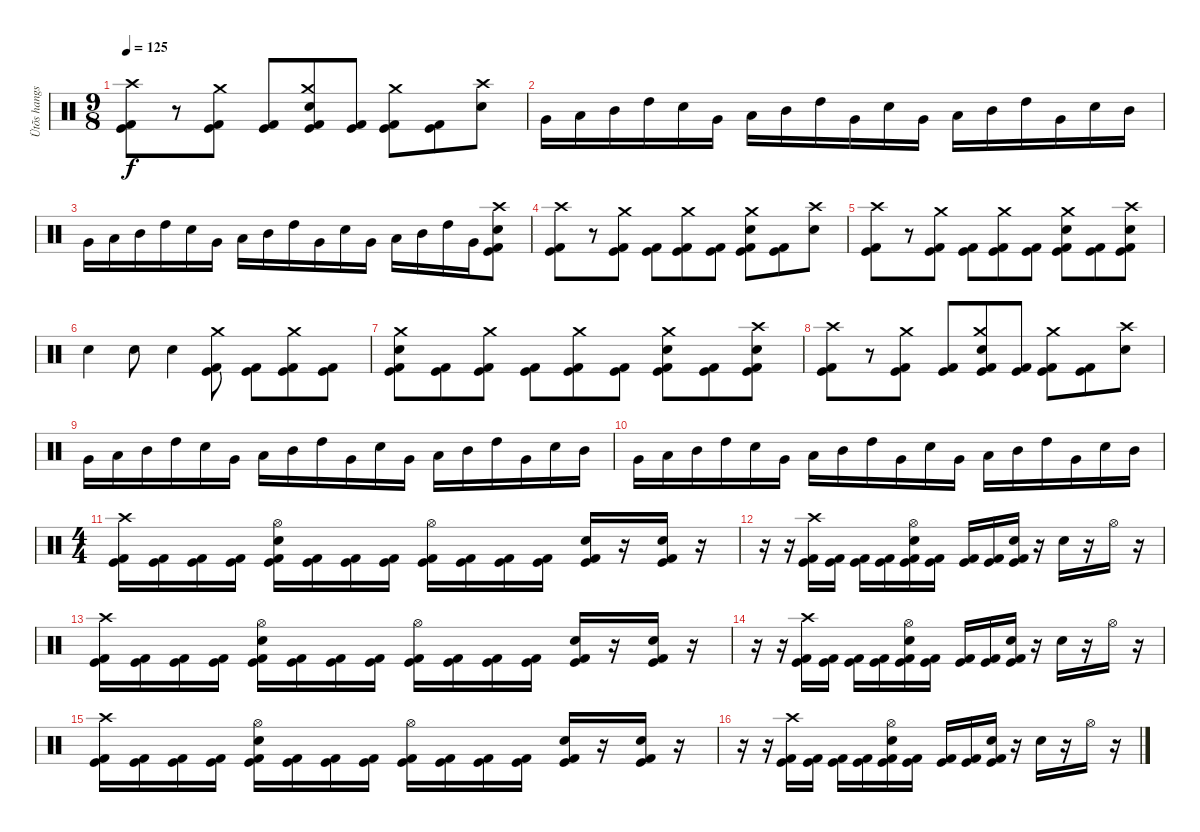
\track ("Ütõs hangszer" "Ütõs hangs") {instrument percussion}
\staff {score}
\articulation defaults
\ts (9 8)
\tempo 125
\clef neutral
\ks c
("Crash high (hit)" "Kick (hit)" "Kick (hit) 2").8{dy f} r.8 ("Crash medium (hit)" "Kick (hit)" "Kick (hit) 2").8 ("Kick (hit)" "Kick (hit) 2").8 ("Crash medium (hit)" "Snare (hit) 2" "Kick (hit)" "Kick (hit) 2").8 ("Kick (hit)" "Kick (hit) 2").8 ("Crash medium (hit)" "Kick (hit)" "Kick (hit) 2").8 ("Kick (hit)" "Kick (hit) 2").8 ("Crash high (hit)" "Snare (hit) 2").8 |
"Very Low Tom (hit)".16 "Low Tom (hit)".16 "Mid Tom (hit)".16 "High Tom (hit)".16 "Snare (hit) 2".16 "Very Low Tom (hit)".16 "Low Tom (hit)".16 "Mid Tom (hit)".16 "High Tom (hit)".16 "Very Low Tom (hit)".16 "Snare (hit) 2".16 "Very Low Tom (hit)".16 "Low Tom (hit)".16 "Mid Tom (hit)".16 "High Tom (hit)".16 "Very Low Tom (hit)".16 "Snare (hit) 2".16 "Mid Tom (hit)".16 |
"Very Low Tom (hit)".16 "Low Tom (hit)".16 "Mid Tom (hit)".16 "High Tom (hit)".16 "Snare (hit) 2".16 "Very Low Tom (hit)".16 "Low Tom (hit)".16 "Mid Tom (hit)".16 "High Tom (hit)".16 "Very Low Tom (hit)".16 "Snare (hit) 2".16 "Very Low Tom (hit)".16 "Low Tom (hit)".16 "Mid Tom (hit)".16 "High Tom (hit)".16 "Very Low Tom (hit)".16 ("Crash high (hit)" "Snare (hit) 2" "Kick (hit)" "Kick (hit) 2").8 |
("Crash high (hit)" "Kick (hit)" "Kick (hit) 2").8 r.8 ("Crash medium (hit)" "Kick (hit)" "Kick (hit) 2").8 ("Kick (hit)" "Kick (hit) 2").8 ("Crash medium (hit)" "Kick (hit)" "Kick (hit) 2").8 ("Kick (hit)" "Kick (hit) 2").8 ("Crash medium (hit)" "Snare (hit) 2" "Kick (hit)" "Kick (hit) 2").8 ("Kick (hit)" "Kick (hit) 2").8 ("Crash high (hit)" "Snare (hit) 2").8 |
("Crash high (hit)" "Kick (hit)" "Kick (hit) 2").8 r.8 ("Crash medium (hit)" "Kick (hit)" "Kick (hit) 2").8 ("Kick (hit)" "Kick (hit) 2").8 ("Crash medium (hit)" "Kick (hit)" "Kick (hit) 2").8 ("Kick (hit)" "Kick (hit) 2").8 ("Crash medium (hit)" "Snare (hit) 2" "Kick (hit)" "Kick (hit) 2").8 ("Kick (hit)" "Kick (hit) 2").8 ("Crash high (hit)" "Snare (hit) 2" "Kick (hit)" "Kick (hit) 2").8 |
"Snare (hit) 2".4 "Snare (hit) 2".8 "Snare (hit) 2".4 ("Crash medium (hit)" "Kick (hit)" "Kick (hit) 2").8 ("Kick (hit)" "Kick (hit) 2").8 ("Crash medium (hit)" "Kick (hit)" "Kick (hit) 2").8 ("Kick (hit)" "Kick (hit) 2").8 |
("Crash medium (hit)" "Snare (hit) 2" "Kick (hit)" "Kick (hit) 2").8 ("Kick (hit)" "Kick (hit) 2").8 ("Crash medium (hit)" "Kick (hit)" "Kick (hit) 2").8 ("Kick (hit)" "Kick (hit) 2").8 ("Crash medium (hit)" "Kick (hit)" "Kick (hit) 2").8 ("Kick (hit)" "Kick (hit) 2").8 ("Crash medium (hit)" "Snare (hit) 2" "Kick (hit)" "Kick (hit) 2").8 ("Kick (hit)" "Kick (hit) 2").8 ("Crash high (hit)" "Snare (hit) 2" "Kick (hit)" "Kick (hit) 2").8 |
("Crash high (hit)" "Kick (hit)" "Kick (hit) 2").8 r.8 ("Crash medium (hit)" "Kick (hit)" "Kick (hit) 2").8 ("Kick (hit)" "Kick (hit) 2").8 ("Crash medium (hit)" "Snare (hit) 2" "Kick (hit)" "Kick (hit) 2").8 ("Kick (hit)" "Kick (hit) 2").8 ("Crash medium (hit)" "Kick (hit)" "Kick (hit) 2").8 ("Kick (hit)" "Kick (hit) 2").8 ("Crash high (hit)" "Snare (hit) 2").8 |
"Very Low Tom (hit)".16 "Low Tom (hit)".16 "Mid Tom (hit)".16 "High Tom (hit)".16 "Snare (hit) 2".16 "Very Low Tom (hit)".16 "Low Tom (hit)".16 "Mid Tom (hit)".16 "High Tom (hit)".16 "Very Low Tom (hit)".16 "Snare (hit) 2".16 "Very Low Tom (hit)".16 "Low Tom (hit)".16 "Mid Tom (hit)".16 "High Tom (hit)".16 "Very Low Tom (hit)".16 "Snare (hit) 2".16 "Mid Tom (hit)".16 |
"Very Low Tom (hit)".16 "Low Tom (hit)".16 "Mid Tom (hit)".16 "High Tom (hit)".16 "Snare (hit) 2".16 "Very Low Tom (hit)".16 "Low Tom (hit)".16 "Mid Tom (hit)".16 "High Tom (hit)".16 "Very Low Tom (hit)".16 "Snare (hit) 2".16 "Very Low Tom (hit)".16 "Low Tom (hit)".16 "Mid Tom (hit)".16 "High Tom (hit)".16 "Very Low Tom (hit)".16 "Snare (hit) 2".16 "Mid Tom (hit)".16 |
\ts (4 4)
("Crash high (hit)" "Kick (hit)" "Kick (hit) 2").16 ("Kick (hit)" "Kick (hit) 2").16 ("Kick (hit)" "Kick (hit) 2").16 ("Kick (hit)" "Kick (hit) 2").16 ("Hi-Hat (open)" "Snare (hit) 2" "Kick (hit)" "Kick (hit) 2").16 ("Kick (hit)" "Kick (hit) 2").16 ("Kick (hit)" "Kick (hit) 2").16 ("Kick (hit)" "Kick (hit) 2").16 ("Hi-Hat (open)" "Kick (hit)" "Kick (hit) 2").16 ("Kick (hit)" "Kick (hit) 2").16 ("Kick (hit)" "Kick (hit) 2").16 ("Kick (hit)" "Kick (hit) 2").16 ("Snare (hit) 2" "Kick (hit)" "Kick (hit) 2").16 r.16 ("Snare (hit) 2" "Kick (hit)" "Kick (hit) 2").16 r.16 |
r.16 r.16 ("Crash high (hit)" "Kick (hit)" "Kick (hit) 2").16 ("Kick (hit)" "Kick (hit) 2").16 ("Kick (hit)" "Kick (hit) 2").16 ("Kick (hit)" "Kick (hit) 2").16 ("Hi-Hat (open)" "Snare (hit) 2" "Kick (hit)" "Kick (hit) 2").16 ("Kick (hit)" "Kick (hit) 2").16 ("Kick (hit)" "Kick (hit) 2").16 ("Kick (hit)" "Kick (hit) 2").16 ("Snare (hit) 2" "Kick (hit)" "Kick (hit) 2").16 r.16 "Snare (hit) 2".16 r.16 "Hi-Hat (open)".16 r.16 |
("Crash high (hit)" "Kick (hit)" "Kick (hit) 2").16 ("Kick (hit)" "Kick (hit) 2").16 ("Kick (hit)" "Kick (hit) 2").16 ("Kick (hit)" "Kick (hit) 2").16 ("Hi-Hat (open)" "Snare (hit) 2" "Kick (hit)" "Kick (hit) 2").16 ("Kick (hit)" "Kick (hit) 2").16 ("Kick (hit)" "Kick (hit) 2").16 ("Kick (hit)" "Kick (hit) 2").16 ("Hi-Hat (open)" "Kick (hit)" "Kick (hit) 2").16 ("Kick (hit)" "Kick (hit) 2").16 ("Kick (hit)" "Kick (hit) 2").16 ("Kick (hit)" "Kick (hit) 2").16 ("Snare (hit) 2" "Kick (hit)" "Kick (hit) 2").16 r.16 ("Snare (hit) 2" "Kick (hit)" "Kick (hit) 2").16 r.16 |
r.16 r.16 ("Crash high (hit)" "Kick (hit)" "Kick (hit) 2").16 ("Kick (hit)" "Kick (hit) 2").16 ("Kick (hit)" "Kick (hit) 2").16 ("Kick (hit)" "Kick (hit) 2").16 ("Hi-Hat (open)" "Snare (hit) 2" "Kick (hit)" "Kick (hit) 2").16 ("Kick (hit)" "Kick (hit) 2").16 ("Kick (hit)" "Kick (hit) 2").16 ("Kick (hit)" "Kick (hit) 2").16 ("Snare (hit) 2" "Kick (hit)" "Kick (hit) 2").16 r.16 "Snare (hit) 2".16 r.16 "Hi-Hat (open)".16 r.16 |
("Crash high (hit)" "Kick (hit)" "Kick (hit) 2").16 ("Kick (hit)" "Kick (hit) 2").16 ("Kick (hit)" "Kick (hit) 2").16 ("Kick (hit)" "Kick (hit) 2").16 ("Hi-Hat (open)" "Snare (hit) 2" "Kick (hit)" "Kick (hit) 2").16 ("Kick (hit)" "Kick (hit) 2").16 ("Kick (hit)" "Kick (hit) 2").16 ("Kick (hit)" "Kick (hit) 2").16 ("Hi-Hat (open)" "Kick (hit)" "Kick (hit) 2").16 ("Kick (hit)" "Kick (hit) 2").16 ("Kick (hit)" "Kick (hit) 2").16 ("Kick (hit)" "Kick (hit) 2").16 ("Snare (hit) 2" "Kick (hit)" "Kick (hit) 2").16 r.16 ("Snare (hit) 2" "Kick (hit)" "Kick (hit) 2").16 r.16 |
r.16 r.16 ("Crash high (hit)" "Kick (hit)" "Kick (hit) 2").16 ("Kick (hit)" "Kick (hit) 2").16 ("Kick (hit)" "Kick (hit) 2").16 ("Kick (hit)" "Kick (hit) 2").16 ("Hi-Hat (open)" "Snare (hit) 2" "Kick (hit)" "Kick (hit) 2").16 ("Kick (hit)" "Kick (hit) 2").16 ("Kick (hit)" "Kick (hit) 2").16 ("Kick (hit)" "Kick (hit) 2").16 ("Snare (hit) 2" "Kick (hit)" "Kick (hit) 2").16 r.16 "Snare (hit) 2".16 r.16 "Hi-Hat (open)".16 r.16
